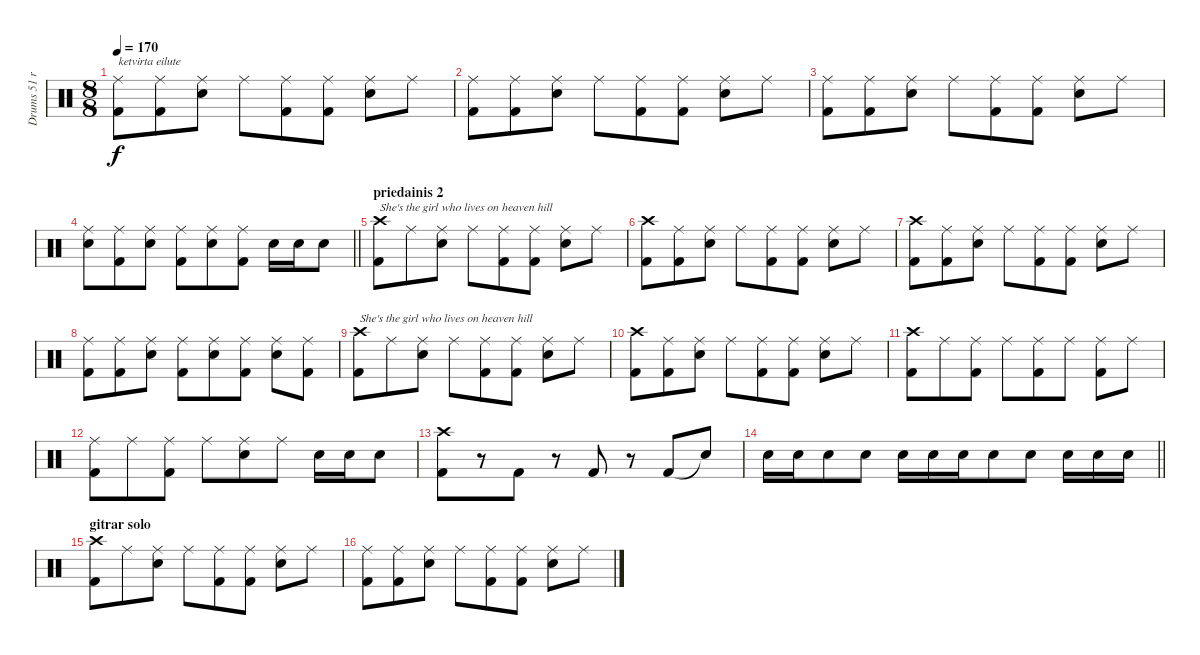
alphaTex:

\track ("Drums 51 ride ALBUM" "Drums 51 r") {mute instrument percussion}
\staff {score}
\articulation defaults
\ts (8 8)
\tempo 170
\clef neutral
\ks c
("Ride (middle)" "Kick (hit) 2").8{txt "ketvirta eilute" dy f} ("Ride (middle)" "Kick (hit) 2").8 ("Ride (middle)" "Snare (hit) 2").8 "Ride (middle)".8 ("Ride (middle)" "Kick (hit) 2").8 ("Ride (middle)" "Kick (hit) 2").8 ("Ride (middle)" "Snare (hit) 2").8 "Ride (middle)".8 |
("Ride (middle)" "Kick (hit) 2").8 ("Ride (middle)" "Kick (hit) 2").8 ("Ride (middle)" "Snare (hit) 2").8 "Ride (middle)".8 ("Ride (middle)" "Kick (hit) 2").8 ("Ride (middle)" "Kick (hit) 2").8 ("Ride (middle)" "Snare (hit) 2").8 "Ride (middle)".8 |
("Ride (middle)" "Kick (hit) 2").8 ("Ride (middle)" "Kick (hit) 2").8 ("Ride (middle)" "Snare (hit) 2").8 "Ride (middle)".8 ("Ride (middle)" "Kick (hit) 2").8 ("Ride (middle)" "Kick (hit) 2").8 ("Ride (middle)" "Snare (hit) 2").8 "Ride (middle)".8 |
\barLineRight lightlight
("Ride (middle)" "Snare (hit) 2").8 ("Ride (middle)" "Kick (hit) 2").8 ("Ride (middle)" "Snare (hit) 2").8 ("Ride (middle)" "Kick (hit) 2").8 ("Ride (middle)" "Snare (hit) 2").8 ("Ride (middle)" "Kick (hit) 2").8 "Snare (hit) 2".16 "Snare (hit) 2".16 "Snare (hit) 2".8 |
\section ("" "priedainis 2")
("Crash high (hit)" "Kick (hit) 2").8{txt "She's the girl who lives on heaven hill"} "Ride (middle)".8 ("Ride (middle)" "Snare (hit) 2").8 "Ride (middle)".8 ("Ride (middle)" "Kick (hit) 2").8 ("Ride (middle)" "Kick (hit) 2").8 ("Ride (middle)" "Snare (hit) 2").8 "Ride (middle)".8 |
("Crash high (hit)" "Kick (hit) 2").8 ("Ride (middle)" "Kick (hit) 2").8 ("Ride (middle)" "Snare (hit) 2").8 "Ride (middle)".8 ("Ride (middle)" "Kick (hit) 2").8 ("Ride (middle)" "Kick (hit) 2").8 ("Ride (middle)" "Snare (hit) 2").8 "Ride (middle)".8 |
("Crash high (hit)" "Kick (hit) 2").8 ("Ride (middle)" "Kick (hit) 2").8 ("Ride (middle)" "Snare (hit) 2").8 "Ride (middle)".8 ("Ride (middle)" "Kick (hit) 2").8 ("Ride (middle)" "Kick (hit) 2").8 ("Ride (middle)" "Snare (hit) 2").8 "Ride (middle)".8 |
("Ride (middle)" "Kick (hit) 2").8 ("Ride (middle)" "Kick (hit) 2").8 ("Ride (middle)" "Snare (hit) 2").8 ("Ride (middle)" "Kick (hit) 2").8 ("Ride (middle)" "Snare (hit) 2").8 ("Ride (middle)" "Kick (hit) 2").8 ("Ride (middle)" "Snare (hit) 2").8 ("Ride (middle)" "Kick (hit) 2").8 |
("Crash high (hit)" "Kick (hit) 2").8{txt "She's the girl who lives on heaven hill"} "Ride (middle)".8 ("Ride (middle)" "Snare (hit) 2").8 "Ride (middle)".8 ("Ride (middle)" "Kick (hit) 2").8 ("Ride (middle)" "Kick (hit) 2").8 ("Ride (middle)" "Snare (hit) 2").8 "Ride (middle)".8 |
("Crash high (hit)" "Kick (hit) 2").8 ("Ride (middle)" "Kick (hit) 2").8 ("Ride (middle)" "Snare (hit) 2").8 "Ride (middle)".8 ("Ride (middle)" "Kick (hit) 2").8 ("Ride (middle)" "Kick (hit) 2").8 ("Ride (middle)" "Snare (hit) 2").8 "Ride (middle)".8 |
("Crash high (hit)" "Kick (hit) 2").8 "Ride (middle)".8 ("Ride (middle)" "Kick (hit) 2").8 "Ride (middle)".8 ("Ride (middle)" "Kick (hit) 2").8 "Ride (middle)".8 ("Ride (middle)" "Kick (hit) 2").8 "Ride (middle)".8 |
("Ride (middle)" "Kick (hit) 2").8 "Ride (middle)".8 ("Ride (middle)" "Kick (hit) 2").8 "Ride (middle)".8 ("Ride (middle)" "Snare (hit) 2").8 "Ride (middle)".8 "Snare (hit) 2".16 "Snare (hit) 2".16 "Snare (hit) 2".8 |
("Crash high (hit)" "Kick (hit) 2").8 r.8 "Kick (hit) 2".8 r.8 "Kick (hit) 2".8 r.8 "Kick (hit) 2".8 "Snare (hit)"{t}.8 |
\barLineRight lightlight "Snare (hit) 2".16 "Snare (hit) 2".16 "Snare (hit) 2".8 "Snare (hit) 2".8 "Snare (hit) 2".16 "Snare (hit) 2".16 "Snare (hit) 2".16 "Snare (hit) 2".8 "Snare (hit) 2".8 "Snare (hit) 2".16 "Snare (hit) 2".16 "Snare (hit) 2".16
|
\section ("" "gitrar solo")
("Crash high (hit)" "Kick (hit) 2").8 "Ride (middle)".8 ("Ride (middle)" "Snare (hit) 2").8 "Ride (middle)".8 ("Ride (middle)" "Kick (hit) 2").8 ("Ride (middle)" "Kick (hit) 2").8 ("Ride (middle)" "Snare (hit) 2").8 "Ride (middle)".8 |
("Ride (middle)" "Kick (hit) 2").8 ("Ride (middle)" "Kick (hit) 2").8 ("Ride (middle)" "Snare (hit) 2").8 "Ride (middle)".8 ("Ride (middle)" "Kick (hit) 2").8 ("Ride (middle)" "Kick (hit) 2").8 ("Ride (middle)" "Snare (hit) 2").8 "Ride (middle)".8
